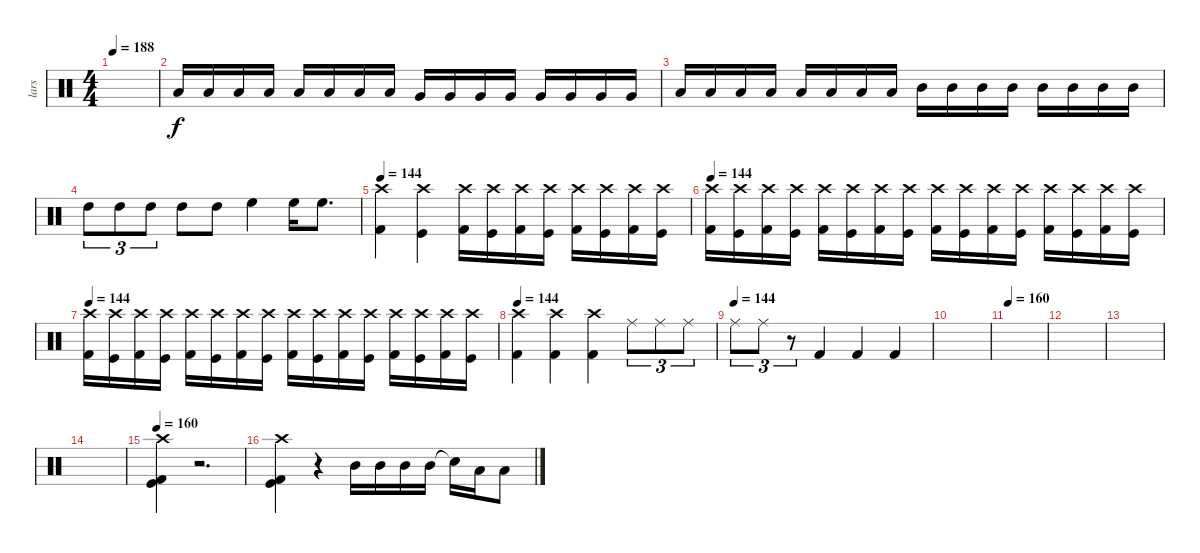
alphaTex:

\track ("lars" "lars") {instrument percussion}
\staff {score}
\articulation defaults
\ts (4 4)
\tempo 188
\clef neutral
\ks c
|
"Low Floor Tom (hit)".16 "Low Floor Tom (hit)".16 "Low Floor Tom (hit)".16 "Low Floor Tom (hit)".16 "Low Floor Tom (hit)".16 "Low Floor Tom (hit)".16 "Low Floor Tom (hit)".16 "Low Floor Tom (hit)".16 "Very Low Tom (hit)".16 "Very Low Tom (hit)".16 "Very Low Tom (hit)".16 "Very Low Tom (hit)".16 "Very Low Tom (hit)".16 "Very Low Tom (hit)".16 "Very Low Tom (hit)".16 "Very Low Tom (hit)".16 |
"Low Tom (hit)".16 "Low Tom (hit)".16 "Low Tom (hit)".16 "Low Tom (hit)".16 "Low Tom (hit)".16 "Low Tom (hit)".16 "Low Tom (hit)".16 "Low Tom (hit)".16 "Mid Tom (hit)".16 "Mid Tom (hit)".16 "Mid Tom (hit)".16 "Mid Tom (hit)".16 "Mid Tom (hit)".16 "Mid Tom (hit)".16 "Mid Tom (hit)".16 "Mid Tom (hit)".16 |
"High Tom (hit)".8{tu (3 2)} "High Tom (hit)".8{tu (3 2)} "High Tom (hit)".8{tu (3 2)} "High Tom (hit)".8 "High Tom (hit)".8 "High Floor Tom (hit)".4 "High Floor Tom (hit)".16 "High Floor Tom (hit)".8{d} |
\tempo 144
("Crash high (hit)" "Kick (hit) 2").4 ("Crash high (hit)" "Kick (hit)").4 ("Crash high (hit)" "Kick (hit) 2").16 ("Crash high (hit)" "Kick (hit)").16 ("Crash high (hit)" "Kick (hit) 2").16 ("Crash high (hit)" "Kick (hit)").16 ("Crash high (hit)" "Kick (hit) 2").16 ("Crash high (hit)" "Kick (hit)").16 ("Crash high (hit)" "Kick (hit) 2").16 ("Crash high (hit)" "Kick (hit)").16 |
\tempo 144
("Crash high (hit)" "Kick (hit) 2").16 ("Crash high (hit)" "Kick (hit)").16 ("Crash high (hit)" "Kick (hit) 2").16 ("Crash high (hit)" "Kick (hit)").16 ("Crash high (hit)" "Kick (hit) 2").16 ("Crash high (hit)" "Kick (hit)").16 ("Crash high (hit)" "Kick (hit) 2").16 ("Crash high (hit)" "Kick (hit)").16 ("Crash high (hit)" "Kick (hit) 2").16 ("Crash high (hit)" "Kick (hit)").16 ("Crash high (hit)" "Kick (hit) 2").16 ("Crash high (hit)" "Kick (hit)").16 ("Crash high (hit)" "Kick (hit) 2").16 ("Crash high (hit)" "Kick (hit)").16 ("Crash high (hit)" "Kick (hit) 2").16 ("Crash high (hit)" "Kick (hit)").16 |
\tempo 144
("Crash high (hit)" "Kick (hit) 2").16 ("Crash high (hit)" "Kick (hit)").16 ("Crash high (hit)" "Kick (hit) 2").16 ("Crash high (hit)" "Kick (hit)").16 ("Crash high (hit)" "Kick (hit) 2").16 ("Crash high (hit)" "Kick (hit)").16 ("Crash high (hit)" "Kick (hit) 2").16 ("Crash high (hit)" "Kick (hit)").16 ("Crash high (hit)" "Kick (hit) 2").16 ("Crash high (hit)" "Kick (hit)").16 ("Crash high (hit)" "Kick (hit) 2").16 ("Crash high (hit)" "Kick (hit)").16 ("Crash high (hit)" "Kick (hit) 2").16 ("Crash high (hit)" "Kick (hit)").16 ("Crash high (hit)" "Kick (hit) 2").16 ("Crash high (hit)" "Kick (hit)").16 |
\tempo 144
("Crash high (hit)" "Kick (hit) 2").4 ("Crash high (hit)" "Kick (hit) 2").4 ("Crash high (hit)" "Kick (hit) 2").4 "Ride (middle)".8{tu (3 2)} "Ride (middle)".8{tu (3 2)} "Ride (middle)".8{tu (3 2)} |
\tempo (144)
"Ride (middle)".8{tu (3 2)} "Ride (middle)".8{tu (3 2)} r.8{tu (3 2)} "Kick (hit) 2".4 "Kick (hit) 2".4 "Kick (hit) 2".4 |
|
\tempo 160
|
|
|
|
\tempo 160
("Crash high (hit)" "Kick (hit) 2" "Kick (hit)").4 r.2{d} |
("Crash high (hit)" "Kick (hit) 2" "Kick (hit)").4 r.4 "Mid Tom (hit)".16 "Mid Tom (hit)".16 "Mid Tom (hit)".16 "Mid Tom (hit)".16 "Snare (hit)"{t}.16 "Low Tom (hit)".16 "Low Tom (hit)".8
